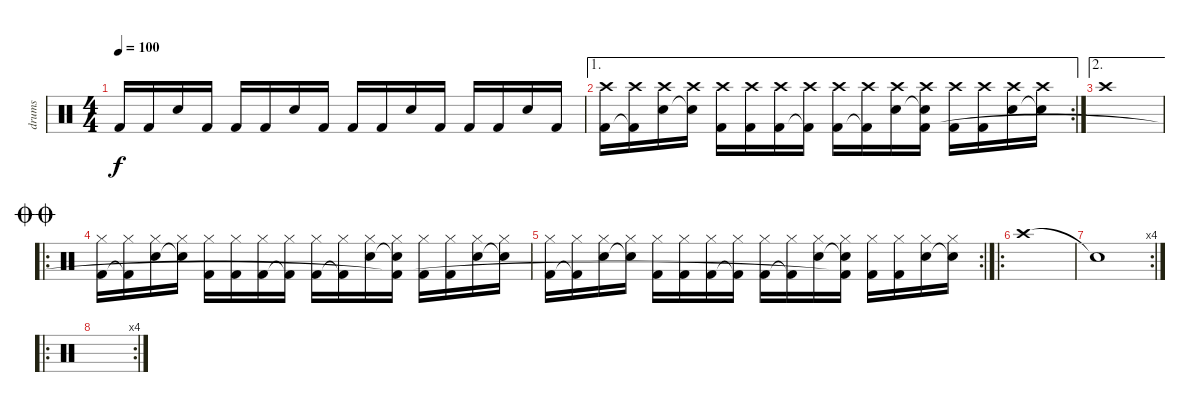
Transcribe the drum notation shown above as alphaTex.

\track ("drums" "drums") {instrument percussion}
\staff {score}
\articulation defaults
\ts (4 4)
\tempo 100
\clef neutral
\ks c "Kick (hit) 2".16{dy f} "Kick (hit) 2".16 "Snare (hit) 2".16 "Kick (hit) 2".16 "Kick (hit) 2".16 "Kick (hit) 2".16 "Snare (hit) 2".16 "Kick (hit) 2".16 "Kick (hit) 2".16 "Kick (hit) 2".16 "Snare (hit) 2".16 "Kick (hit) 2".16 "Kick (hit) 2".16 "Kick (hit) 2".16 "Snare (hit) 2".16 "Kick (hit) 2".16
|
\ae 1
\rc 2
("Crash high (hit)" "Kick (hit) 2").16 ("Crash high (hit)" "Kick (hit) 2"{t}).16 ("Crash high (hit)" "Snare (hit) 2").16 ("Crash high (hit)" "Snare (hit) 2"{t}).16 ("Crash high (hit)" "Kick (hit) 2").16 ("Crash high (hit)" "Kick (hit) 2").16 ("Crash high (hit)" "Kick (hit) 2").16 ("Crash high (hit)" "Kick (hit) 2"{t}).16 ("Crash high (hit)" "Kick (hit) 2").16 ("Crash high (hit)" "Kick (hit) 2"{t}).16 ("Crash high (hit)" "Snare (hit) 2").16 ("Crash high (hit)" "Snare (hit) 2"{t} "Kick (hit) 2"{t}).16 ("Crash high (hit)" "Kick (hit) 2").16 ("Crash high (hit)" "Kick (hit) 2").16 ("Crash high (hit)" "Snare (hit) 2").16 ("Crash high (hit)" "Snare (hit) 2"{t}).16 |
\ae 2 "Crash high (hit)".1
|
\ro
\jump doublecoda
("Hi-Hat (closed)" "Kick (hit) 2").16 ("Hi-Hat (closed)" "Kick (hit) 2"{t}).16 ("Hi-Hat (closed)" "Snare (hit) 2").16 ("Hi-Hat (closed)" "Snare (hit) 2"{t}).16 ("Hi-Hat (closed)" "Kick (hit) 2").16 ("Hi-Hat (closed)" "Kick (hit) 2").16 ("Hi-Hat (closed)" "Kick (hit) 2").16 ("Hi-Hat (closed)" "Kick (hit) 2"{t}).16 ("Hi-Hat (closed)" "Kick (hit) 2").16 ("Hi-Hat (closed)" "Kick (hit) 2"{t}).16 ("Hi-Hat (closed)" "Snare (hit) 2").16 ("Hi-Hat (closed)" "Snare (hit) 2"{t} "Kick (hit) 2"{t}).16 ("Hi-Hat (closed)" "Kick (hit) 2").16 ("Hi-Hat (closed)" "Kick (hit) 2").16 ("Hi-Hat (closed)" "Snare (hit) 2").16 ("Hi-Hat (closed)" "Snare (hit) 2"{t}).16 |
\rc 2
("Hi-Hat (closed)" "Kick (hit) 2").16 ("Hi-Hat (closed)" "Kick (hit) 2"{t}).16 ("Hi-Hat (closed)" "Snare (hit) 2").16 ("Hi-Hat (closed)" "Snare (hit) 2"{t}).16 ("Hi-Hat (closed)" "Kick (hit) 2").16 ("Hi-Hat (closed)" "Kick (hit) 2").16 ("Hi-Hat (closed)" "Kick (hit) 2").16 ("Hi-Hat (closed)" "Kick (hit) 2"{t}).16 ("Hi-Hat (closed)" "Kick (hit) 2").16 ("Hi-Hat (closed)" "Kick (hit) 2"{t}).16 ("Hi-Hat (closed)" "Snare (hit) 2").16 ("Hi-Hat (closed)" "Snare (hit) 2"{t} "Kick (hit) 2"{t}).16 ("Hi-Hat (closed)" "Kick (hit) 2").16 ("Hi-Hat (closed)" "Kick (hit) 2").16 ("Hi-Hat (closed)" "Snare (hit) 2").16 ("Hi-Hat (closed)" "Snare (hit) 2"{t}).16 |
\ro "Crash high (hit)".1
|
\rc 4 "Snare (hit)"{t}.1
|
\ro
\rc 4
